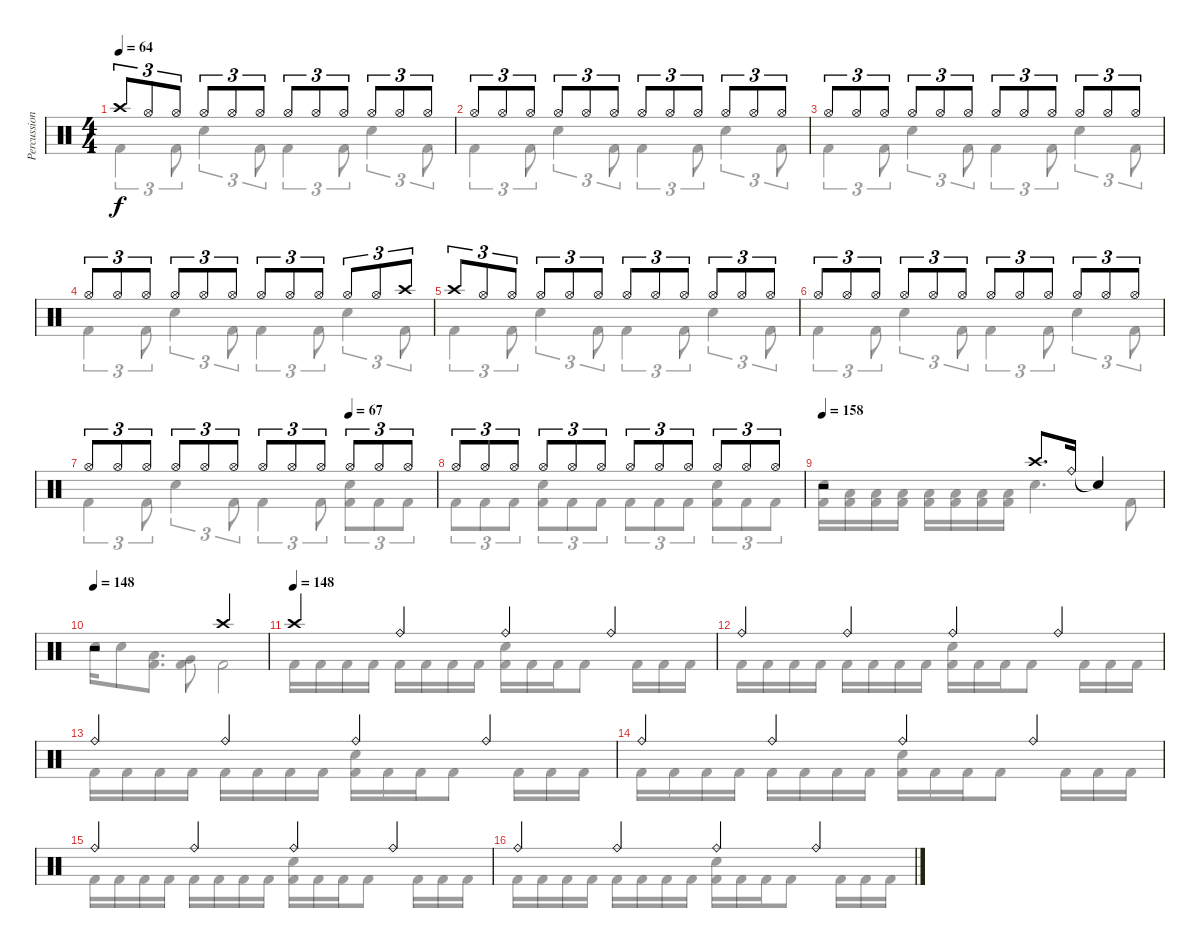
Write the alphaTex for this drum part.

\track ("Percussion" "Percussion") {instrument percussion}
\staff {score}
\articulation defaults
\voice
\ts (4 4)
\tempo 64
\clef neutral
\ks c "Crash high (hit)".8{tu (3 2) dy f} "Hi-Hat (open)".8{tu (3 2)} "Hi-Hat (open)".8{tu (3 2)} "Hi-Hat (open)".8{tu (3 2)} "Hi-Hat (open)".8{tu (3 2)} "Hi-Hat (open)".8{tu (3 2)} "Hi-Hat (open)".8{tu (3 2)} "Hi-Hat (open)".8{tu (3 2)} "Hi-Hat (open)".8{tu (3 2)} "Hi-Hat (open)".8{tu (3 2)} "Hi-Hat (open)".8{tu (3 2)} "Hi-Hat (open)".8{tu (3 2)}
|
"Hi-Hat (open)".8{tu (3 2)} "Hi-Hat (open)".8{tu (3 2)} "Hi-Hat (open)".8{tu (3 2)} "Hi-Hat (open)".8{tu (3 2)} "Hi-Hat (open)".8{tu (3 2)} "Hi-Hat (open)".8{tu (3 2)} "Hi-Hat (open)".8{tu (3 2)} "Hi-Hat (open)".8{tu (3 2)} "Hi-Hat (open)".8{tu (3 2)} "Hi-Hat (open)".8{tu (3 2)} "Hi-Hat (open)".8{tu (3 2)} "Hi-Hat (open)".8{tu (3 2)} |
"Hi-Hat (open)".8{tu (3 2)} "Hi-Hat (open)".8{tu (3 2)} "Hi-Hat (open)".8{tu (3 2)} "Hi-Hat (open)".8{tu (3 2)} "Hi-Hat (open)".8{tu (3 2)} "Hi-Hat (open)".8{tu (3 2)} "Hi-Hat (open)".8{tu (3 2)} "Hi-Hat (open)".8{tu (3 2)} "Hi-Hat (open)".8{tu (3 2)} "Hi-Hat (open)".8{tu (3 2)} "Hi-Hat (open)".8{tu (3 2)} "Hi-Hat (open)".8{tu (3 2)} |
"Hi-Hat (open)".8{tu (3 2)} "Hi-Hat (open)".8{tu (3 2)} "Hi-Hat (open)".8{tu (3 2)} "Hi-Hat (open)".8{tu (3 2)} "Hi-Hat (open)".8{tu (3 2)} "Hi-Hat (open)".8{tu (3 2)} "Hi-Hat (open)".8{tu (3 2)} "Hi-Hat (open)".8{tu (3 2)} "Hi-Hat (open)".8{tu (3 2)} "Hi-Hat (open)".8{tu (3 2)} "Hi-Hat (open)".8{tu (3 2)} "Crash high (hit)".8{tu (3 2)} |
"Crash high (hit)".8{tu (3 2)} "Hi-Hat (open)".8{tu (3 2)} "Hi-Hat (open)".8{tu (3 2)} "Hi-Hat (open)".8{tu (3 2)} "Hi-Hat (open)".8{tu (3 2)} "Hi-Hat (open)".8{tu (3 2)} "Hi-Hat (open)".8{tu (3 2)} "Hi-Hat (open)".8{tu (3 2)} "Hi-Hat (open)".8{tu (3 2)} "Hi-Hat (open)".8{tu (3 2)} "Hi-Hat (open)".8{tu (3 2)} "Hi-Hat (open)".8{tu (3 2)} |
"Hi-Hat (open)".8{tu (3 2)} "Hi-Hat (open)".8{tu (3 2)} "Hi-Hat (open)".8{tu (3 2)} "Hi-Hat (open)".8{tu (3 2)} "Hi-Hat (open)".8{tu (3 2)} "Hi-Hat (open)".8{tu (3 2)} "Hi-Hat (open)".8{tu (3 2)} "Hi-Hat (open)".8{tu (3 2)} "Hi-Hat (open)".8{tu (3 2)} "Hi-Hat (open)".8{tu (3 2)} "Hi-Hat (open)".8{tu (3 2)} "Hi-Hat (open)".8{tu (3 2)} |
\tempo (67 0.75)
"Hi-Hat (open)".8{tu (3 2)} "Hi-Hat (open)".8{tu (3 2)} "Hi-Hat (open)".8{tu (3 2)} "Hi-Hat (open)".8{tu (3 2)} "Hi-Hat (open)".8{tu (3 2)} "Hi-Hat (open)".8{tu (3 2)} "Hi-Hat (open)".8{tu (3 2)} "Hi-Hat (open)".8{tu (3 2)} "Hi-Hat (open)".8{tu (3 2)} "Hi-Hat (open)".8{tu (3 2)} "Hi-Hat (open)".8{tu (3 2)} "Hi-Hat (open)".8{tu (3 2)} |
"Hi-Hat (open)".8{tu (3 2)} "Hi-Hat (open)".8{tu (3 2)} "Hi-Hat (open)".8{tu (3 2)} "Hi-Hat (open)".8{tu (3 2)} "Hi-Hat (open)".8{tu (3 2)} "Hi-Hat (open)".8{tu (3 2)} "Hi-Hat (open)".8{tu (3 2)} "Hi-Hat (open)".8{tu (3 2)} "Hi-Hat (open)".8{tu (3 2)} "Hi-Hat (open)".8{tu (3 2)} "Hi-Hat (open)".8{tu (3 2)} "Hi-Hat (open)".8{tu (3 2)} |
\tempo 158
r.2 "Crash high (hit)".8{d} "Ride (bell)".16 "Snare (hit)"{t}.4 |
\tempo 148
r.2 "Crash high (hit)".2 |
\tempo (148)
"Crash high (hit)".4 "Ride (bell)".4 "Ride (bell)".4 "Ride (bell)".4 |
"Ride (bell)".4 "Ride (bell)".4 "Ride (bell)".4 "Ride (bell)".4 |
"Ride (bell)".4 "Ride (bell)".4 "Ride (bell)".4 "Ride (bell)".4 |
"Ride (bell)".4 "Ride (bell)".4 "Ride (bell)".4 "Ride (bell)".4 |
"Ride (bell)".4 "Ride (bell)".4 "Ride (bell)".4 "Ride (bell)".4 |
"Ride (bell)".4 "Ride (bell)".4 "Ride (bell)".4 "Ride (bell)".4
\voice
\clef neutral
\ottava regular
\simile none
\ks c "Kick (hit) 2".4{tu (3 2) dy f} "Kick (hit) 2".8{tu (3 2)} "Electric Snare (hit)".4{tu (3 2)} "Kick (hit) 2".8{tu (3 2)} "Kick (hit) 2".4{tu (3 2)} "Kick (hit) 2".8{tu (3 2)} "Electric Snare (hit)".4{tu (3 2)} "Kick (hit) 2".8{tu (3 2)}
|
"Kick (hit) 2".4{tu (3 2)} "Kick (hit) 2".8{tu (3 2)} "Electric Snare (hit)".4{tu (3 2)} "Kick (hit) 2".8{tu (3 2)} "Kick (hit) 2".4{tu (3 2)} "Kick (hit) 2".8{tu (3 2)} "Electric Snare (hit)".4{tu (3 2)} "Kick (hit) 2".8{tu (3 2)} |
"Kick (hit) 2".4{tu (3 2)} "Kick (hit) 2".8{tu (3 2)} "Electric Snare (hit)".4{tu (3 2)} "Kick (hit) 2".8{tu (3 2)} "Kick (hit) 2".4{tu (3 2)} "Kick (hit) 2".8{tu (3 2)} "Electric Snare (hit)".4{tu (3 2)} "Kick (hit) 2".8{tu (3 2)} |
"Kick (hit) 2".4{tu (3 2)} "Kick (hit) 2".8{tu (3 2)} "Electric Snare (hit)".4{tu (3 2)} "Kick (hit) 2".8{tu (3 2)} "Kick (hit) 2".4{tu (3 2)} "Kick (hit) 2".8{tu (3 2)} "Electric Snare (hit)".4{tu (3 2)} "Kick (hit) 2".8{tu (3 2)} |
"Kick (hit) 2".4{tu (3 2)} "Kick (hit) 2".8{tu (3 2)} "Electric Snare (hit)".4{tu (3 2)} "Kick (hit) 2".8{tu (3 2)} "Kick (hit) 2".4{tu (3 2)} "Kick (hit) 2".8{tu (3 2)} "Electric Snare (hit)".4{tu (3 2)} "Kick (hit) 2".8{tu (3 2)} |
"Kick (hit) 2".4{tu (3 2)} "Kick (hit) 2".8{tu (3 2)} "Electric Snare (hit)".4{tu (3 2)} "Kick (hit) 2".8{tu (3 2)} "Kick (hit) 2".4{tu (3 2)} "Kick (hit) 2".8{tu (3 2)} "Electric Snare (hit)".4{tu (3 2)} "Kick (hit) 2".8{tu (3 2)} |
"Kick (hit) 2".4{tu (3 2)} "Kick (hit) 2".8{tu (3 2)} "Electric Snare (hit)".4{tu (3 2)} "Kick (hit) 2".8{tu (3 2)} "Kick (hit) 2".4{tu (3 2)} "Kick (hit) 2".8{tu (3 2)} ("Electric Snare (hit)" "Kick (hit) 2").8{tu (3 2)} "Kick (hit) 2".8{tu (3 2)} "Kick (hit) 2".8{tu (3 2)} |
"Kick (hit) 2".8{tu (3 2)} "Kick (hit) 2".8{tu (3 2)} "Kick (hit) 2".8{tu (3 2)} ("Electric Snare (hit)" "Kick (hit) 2").8{tu (3 2)} "Kick (hit) 2".8{tu (3 2)} "Kick (hit) 2".8{tu (3 2)} "Kick (hit) 2".8{tu (3 2)} "Kick (hit) 2".8{tu (3 2)} "Kick (hit) 2".8{tu (3 2)} ("Electric Snare (hit)" "Kick (hit) 2").8{tu (3 2)} "Kick (hit) 2".8{tu (3 2)} "Kick (hit) 2".8{tu (3 2)} |
("Electric Snare (hit)" "Kick (hit) 2").16 ("Low Floor Tom (hit)" "Kick (hit) 2").16 ("Low Floor Tom (hit)" "Kick (hit) 2").16 ("Low Floor Tom (hit)" "Kick (hit) 2").16 ("Low Floor Tom (hit)" "Kick (hit) 2").16 ("Low Floor Tom (hit)" "Kick (hit) 2").16 ("Low Floor Tom (hit)" "Kick (hit) 2").16 ("Low Floor Tom (hit)" "Kick (hit) 2").16 "Electric Snare (hit)".4{d} "Kick (hit) 2".8 |
"Electric Snare (hit)".16 "Electric Snare (hit)".8 ("Low Tom (hit)" "Kick (hit) 2").8{d} ("Very Low Tom (hit)" "Kick (hit) 2").8 "Kick (hit) 2".2 |
"Kick (hit) 2".16 "Kick (hit) 2".16 "Kick (hit) 2".16 "Kick (hit) 2".16 "Kick (hit) 2".16 "Kick (hit) 2".16 "Kick (hit) 2".16 "Kick (hit) 2".16 ("Electric Snare (hit)" "Kick (hit) 2").16 "Kick (hit) 2".16 "Kick (hit) 2".16 "Kick (hit) 2".8 "Kick (hit) 2".16 "Kick (hit) 2".16 "Kick (hit) 2".16 |
"Kick (hit) 2".16 "Kick (hit) 2".16 "Kick (hit) 2".16 "Kick (hit) 2".16 "Kick (hit) 2".16 "Kick (hit) 2".16 "Kick (hit) 2".16 "Kick (hit) 2".16 ("Electric Snare (hit)" "Kick (hit) 2").16 "Kick (hit) 2".16 "Kick (hit) 2".16 "Kick (hit) 2".8 "Kick (hit) 2".16 "Kick (hit) 2".16 "Kick (hit) 2".16 |
"Kick (hit) 2".16 "Kick (hit) 2".16 "Kick (hit) 2".16 "Kick (hit) 2".16 "Kick (hit) 2".16 "Kick (hit) 2".16 "Kick (hit) 2".16 "Kick (hit) 2".16 ("Electric Snare (hit)" "Kick (hit) 2").16 "Kick (hit) 2".16 "Kick (hit) 2".16 "Kick (hit) 2".8 "Kick (hit) 2".16 "Kick (hit) 2".16 "Kick (hit) 2".16 |
"Kick (hit) 2".16 "Kick (hit) 2".16 "Kick (hit) 2".16 "Kick (hit) 2".16 "Kick (hit) 2".16 "Kick (hit) 2".16 "Kick (hit) 2".16 "Kick (hit) 2".16 ("Electric Snare (hit)" "Kick (hit) 2").16 "Kick (hit) 2".16 "Kick (hit) 2".16 "Kick (hit) 2".8 "Kick (hit) 2".16 "Kick (hit) 2".16 "Kick (hit) 2".16 |
"Kick (hit) 2".16 "Kick (hit) 2".16 "Kick (hit) 2".16 "Kick (hit) 2".16 "Kick (hit) 2".16 "Kick (hit) 2".16 "Kick (hit) 2".16 "Kick (hit) 2".16 ("Electric Snare (hit)" "Kick (hit) 2").16 "Kick (hit) 2".16 "Kick (hit) 2".16 "Kick (hit) 2".8 "Kick (hit) 2".16 "Kick (hit) 2".16 "Kick (hit) 2".16 |
"Kick (hit) 2".16 "Kick (hit) 2".16 "Kick (hit) 2".16 "Kick (hit) 2".16 "Kick (hit) 2".16 "Kick (hit) 2".16 "Kick (hit) 2".16 "Kick (hit) 2".16 ("Electric Snare (hit)" "Kick (hit) 2").16 "Kick (hit) 2".16 "Kick (hit) 2".16 "Kick (hit) 2".8 "Kick (hit) 2".16 "Kick (hit) 2".16 "Kick (hit) 2".16
